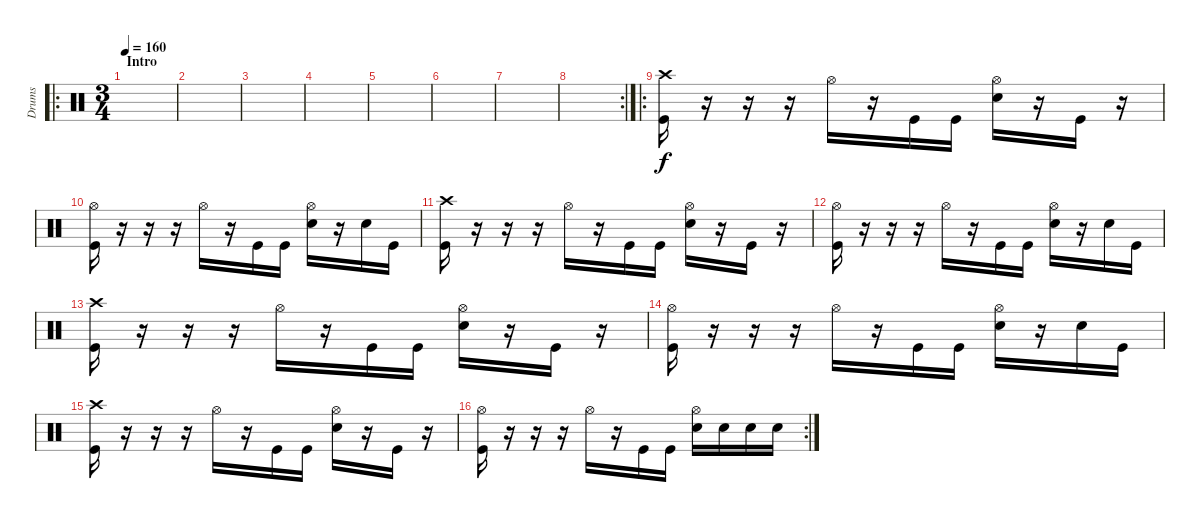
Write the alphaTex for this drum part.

\track ("Drums" "Drums") {instrument percussion}
\staff {score}
\articulation defaults
\ro
\ts (3 4)
\section ("" "Intro")
\tempo 160
\clef neutral
\ks c
|
|
|
|
|
|
|
\rc 2
|
\ro
("Crash high (hit)" "Kick (hit)").16 r.16 r.16 r.16 "Hi-Hat (open)".16 r.16 "Kick (hit)".16 "Kick (hit)".16 ("Hi-Hat (open)" "Snare (hit) 2").16 r.16 "Kick (hit)".16 r.16 |
("Hi-Hat (open)" "Kick (hit)").16 r.16 r.16 r.16 "Hi-Hat (open)".16 r.16 "Kick (hit)".16 "Kick (hit)".16 ("Hi-Hat (open)" "Snare (hit) 2").16 r.16 "Snare (hit) 2".16 "Kick (hit)".16 |
("Crash high (hit)" "Kick (hit)").16 r.16 r.16 r.16 "Hi-Hat (open)".16 r.16 "Kick (hit)".16 "Kick (hit)".16 ("Hi-Hat (open)" "Snare (hit) 2").16 r.16 "Kick (hit)".16 r.16 |
("Hi-Hat (open)" "Kick (hit)").16 r.16 r.16 r.16 "Hi-Hat (open)".16 r.16 "Kick (hit)".16 "Kick (hit)".16 ("Hi-Hat (open)" "Snare (hit) 2").16 r.16 "Snare (hit) 2".16 "Kick (hit)".16 |
("Crash high (hit)" "Kick (hit)").16 r.16 r.16 r.16 "Hi-Hat (open)".16 r.16 "Kick (hit)".16 "Kick (hit)".16 ("Hi-Hat (open)" "Snare (hit) 2").16 r.16 "Kick (hit)".16 r.16 |
("Hi-Hat (open)" "Kick (hit)").16 r.16 r.16 r.16 "Hi-Hat (open)".16 r.16 "Kick (hit)".16 "Kick (hit)".16 ("Hi-Hat (open)" "Snare (hit) 2").16 r.16 "Snare (hit) 2".16 "Kick (hit)".16 |
("Crash high (hit)" "Kick (hit)").16 r.16 r.16 r.16 "Hi-Hat (open)".16 r.16 "Kick (hit)".16 "Kick (hit)".16 ("Hi-Hat (open)" "Snare (hit) 2").16 r.16 "Kick (hit)".16 r.16 |
\rc 2
("Hi-Hat (open)" "Kick (hit)").16 r.16 r.16 r.16 "Hi-Hat (open)".16 r.16 "Kick (hit)".16 "Kick (hit)".16 ("Hi-Hat (open)" "Snare (hit) 2").16 "Snare (hit) 2".16 "Snare (hit) 2".16 "Snare (hit) 2".16
